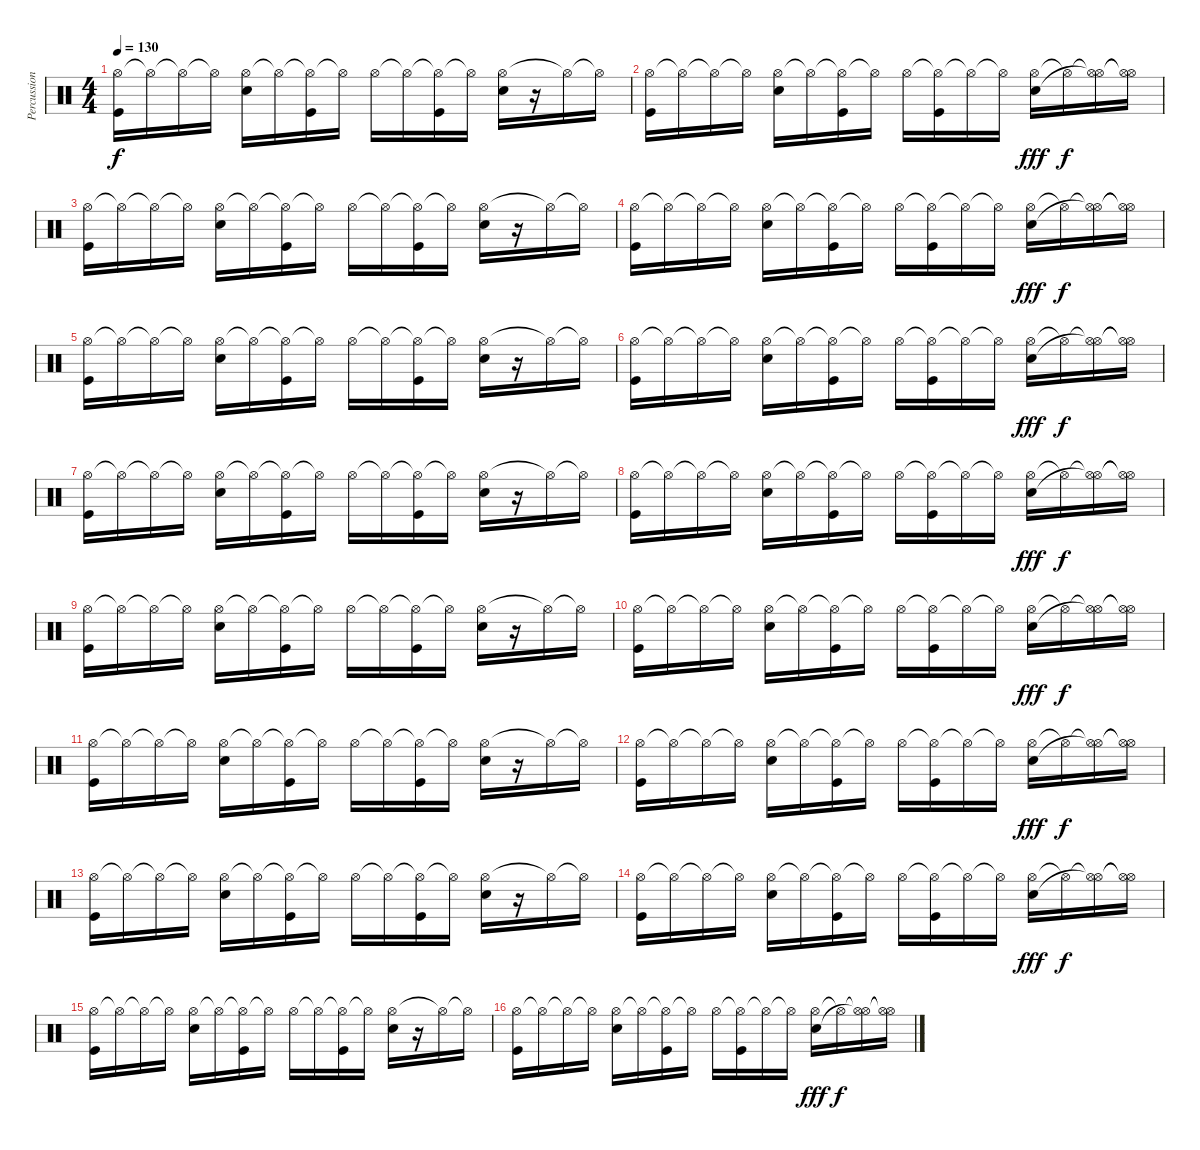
\track ("Percussion" "Percussion") {instrument percussion}
\staff {score}
\articulation defaults
\ts (4 4)
\tempo 130
\clef neutral
\ks c
("Hi-Hat (open)" "Kick (hit)").16{dy f} "Hi-Hat (open)"{t}.16 "Hi-Hat (open)"{t}.16 "Hi-Hat (open)"{t}.16 ("Hi-Hat (open)" "Snare (hit) 2").16 "Hi-Hat (open)"{t}.16 ("Hi-Hat (open)"{t} "Kick (hit)").16 "Hi-Hat (open)"{t}.16 "Hi-Hat (open)".16 "Hi-Hat (open)"{t}.16 ("Hi-Hat (open)"{t} "Kick (hit)").16 "Hi-Hat (open)"{t}.16 ("Hi-Hat (open)" "Snare (hit) 2").16 r.16 "Hi-Hat (open)"{t}.16 "Hi-Hat (open)"{t}.16 |
("Hi-Hat (open)" "Kick (hit)").16 "Hi-Hat (open)"{t}.16 "Hi-Hat (open)"{t}.16 "Hi-Hat (open)"{t}.16 ("Hi-Hat (open)" "Snare (hit) 2").16 "Hi-Hat (open)"{t}.16 ("Hi-Hat (open)"{t} "Kick (hit)").16 "Hi-Hat (open)"{t}.16 "Hi-Hat (open)".16 ("Hi-Hat (open)"{t} "Kick (hit)").16 "Hi-Hat (open)"{t}.16 "Hi-Hat (open)"{t}.16 ("Hi-Hat (open)" "Snare (hit) 2").16{dy fff} "Hi-Hat (open)"{t}.16{dy f} ("Hi-Hat (open)"{t} "Hi-Hat (open)"{t}).16 ("Hi-Hat (open)"{t} "Hi-Hat (open)"{t}).16 |
("Hi-Hat (open)" "Kick (hit)").16 "Hi-Hat (open)"{t}.16 "Hi-Hat (open)"{t}.16 "Hi-Hat (open)"{t}.16 ("Hi-Hat (open)" "Snare (hit) 2").16 "Hi-Hat (open)"{t}.16 ("Hi-Hat (open)"{t} "Kick (hit)").16 "Hi-Hat (open)"{t}.16 "Hi-Hat (open)".16 "Hi-Hat (open)"{t}.16 ("Hi-Hat (open)"{t} "Kick (hit)").16 "Hi-Hat (open)"{t}.16 ("Hi-Hat (open)" "Snare (hit) 2").16 r.16 "Hi-Hat (open)"{t}.16 "Hi-Hat (open)"{t}.16 |
("Hi-Hat (open)" "Kick (hit)").16 "Hi-Hat (open)"{t}.16 "Hi-Hat (open)"{t}.16 "Hi-Hat (open)"{t}.16 ("Hi-Hat (open)" "Snare (hit) 2").16 "Hi-Hat (open)"{t}.16 ("Hi-Hat (open)"{t} "Kick (hit)").16 "Hi-Hat (open)"{t}.16 "Hi-Hat (open)".16 ("Hi-Hat (open)"{t} "Kick (hit)").16 "Hi-Hat (open)"{t}.16 "Hi-Hat (open)"{t}.16 ("Hi-Hat (open)" "Snare (hit) 2").16{dy fff} "Hi-Hat (open)"{t}.16{dy f} ("Hi-Hat (open)"{t} "Hi-Hat (open)"{t}).16 ("Hi-Hat (open)"{t} "Hi-Hat (open)"{t}).16 |
("Hi-Hat (open)" "Kick (hit)").16 "Hi-Hat (open)"{t}.16 "Hi-Hat (open)"{t}.16 "Hi-Hat (open)"{t}.16 ("Hi-Hat (open)" "Snare (hit) 2").16 "Hi-Hat (open)"{t}.16 ("Hi-Hat (open)"{t} "Kick (hit)").16 "Hi-Hat (open)"{t}.16 "Hi-Hat (open)".16 "Hi-Hat (open)"{t}.16 ("Hi-Hat (open)"{t} "Kick (hit)").16 "Hi-Hat (open)"{t}.16 ("Hi-Hat (open)" "Snare (hit) 2").16 r.16 "Hi-Hat (open)"{t}.16 "Hi-Hat (open)"{t}.16 |
("Hi-Hat (open)" "Kick (hit)").16 "Hi-Hat (open)"{t}.16 "Hi-Hat (open)"{t}.16 "Hi-Hat (open)"{t}.16 ("Hi-Hat (open)" "Snare (hit) 2").16 "Hi-Hat (open)"{t}.16 ("Hi-Hat (open)"{t} "Kick (hit)").16 "Hi-Hat (open)"{t}.16 "Hi-Hat (open)".16 ("Hi-Hat (open)"{t} "Kick (hit)").16 "Hi-Hat (open)"{t}.16 "Hi-Hat (open)"{t}.16 ("Hi-Hat (open)" "Snare (hit) 2").16{dy fff} "Hi-Hat (open)"{t}.16{dy f} ("Hi-Hat (open)"{t} "Hi-Hat (open)"{t}).16 ("Hi-Hat (open)"{t} "Hi-Hat (open)"{t}).16 |
("Hi-Hat (open)" "Kick (hit)").16 "Hi-Hat (open)"{t}.16 "Hi-Hat (open)"{t}.16 "Hi-Hat (open)"{t}.16 ("Hi-Hat (open)" "Snare (hit) 2").16 "Hi-Hat (open)"{t}.16 ("Hi-Hat (open)"{t} "Kick (hit)").16 "Hi-Hat (open)"{t}.16 "Hi-Hat (open)".16 "Hi-Hat (open)"{t}.16 ("Hi-Hat (open)"{t} "Kick (hit)").16 "Hi-Hat (open)"{t}.16 ("Hi-Hat (open)" "Snare (hit) 2").16 r.16 "Hi-Hat (open)"{t}.16 "Hi-Hat (open)"{t}.16 |
("Hi-Hat (open)" "Kick (hit)").16 "Hi-Hat (open)"{t}.16 "Hi-Hat (open)"{t}.16 "Hi-Hat (open)"{t}.16 ("Hi-Hat (open)" "Snare (hit) 2").16 "Hi-Hat (open)"{t}.16 ("Hi-Hat (open)"{t} "Kick (hit)").16 "Hi-Hat (open)"{t}.16 "Hi-Hat (open)".16 ("Hi-Hat (open)"{t} "Kick (hit)").16 "Hi-Hat (open)"{t}.16 "Hi-Hat (open)"{t}.16 ("Hi-Hat (open)" "Snare (hit) 2").16{dy fff} "Hi-Hat (open)"{t}.16{dy f} ("Hi-Hat (open)"{t} "Hi-Hat (open)"{t}).16 ("Hi-Hat (open)"{t} "Hi-Hat (open)"{t}).16 |
("Hi-Hat (open)" "Kick (hit)").16 "Hi-Hat (open)"{t}.16 "Hi-Hat (open)"{t}.16 "Hi-Hat (open)"{t}.16 ("Hi-Hat (open)" "Snare (hit) 2").16 "Hi-Hat (open)"{t}.16 ("Hi-Hat (open)"{t} "Kick (hit)").16 "Hi-Hat (open)"{t}.16 "Hi-Hat (open)".16 "Hi-Hat (open)"{t}.16 ("Hi-Hat (open)"{t} "Kick (hit)").16 "Hi-Hat (open)"{t}.16 ("Hi-Hat (open)" "Snare (hit) 2").16 r.16 "Hi-Hat (open)"{t}.16 "Hi-Hat (open)"{t}.16 |
("Hi-Hat (open)" "Kick (hit)").16 "Hi-Hat (open)"{t}.16 "Hi-Hat (open)"{t}.16 "Hi-Hat (open)"{t}.16 ("Hi-Hat (open)" "Snare (hit) 2").16 "Hi-Hat (open)"{t}.16 ("Hi-Hat (open)"{t} "Kick (hit)").16 "Hi-Hat (open)"{t}.16 "Hi-Hat (open)".16 ("Hi-Hat (open)"{t} "Kick (hit)").16 "Hi-Hat (open)"{t}.16 "Hi-Hat (open)"{t}.16 ("Hi-Hat (open)" "Snare (hit) 2").16{dy fff} "Hi-Hat (open)"{t}.16{dy f} ("Hi-Hat (open)"{t} "Hi-Hat (open)"{t}).16 ("Hi-Hat (open)"{t} "Hi-Hat (open)"{t}).16 |
("Hi-Hat (open)" "Kick (hit)").16 "Hi-Hat (open)"{t}.16 "Hi-Hat (open)"{t}.16 "Hi-Hat (open)"{t}.16 ("Hi-Hat (open)" "Snare (hit) 2").16 "Hi-Hat (open)"{t}.16 ("Hi-Hat (open)"{t} "Kick (hit)").16 "Hi-Hat (open)"{t}.16 "Hi-Hat (open)".16 "Hi-Hat (open)"{t}.16 ("Hi-Hat (open)"{t} "Kick (hit)").16 "Hi-Hat (open)"{t}.16 ("Hi-Hat (open)" "Snare (hit) 2").16 r.16 "Hi-Hat (open)"{t}.16 "Hi-Hat (open)"{t}.16 |
("Hi-Hat (open)" "Kick (hit)").16 "Hi-Hat (open)"{t}.16 "Hi-Hat (open)"{t}.16 "Hi-Hat (open)"{t}.16 ("Hi-Hat (open)" "Snare (hit) 2").16 "Hi-Hat (open)"{t}.16 ("Hi-Hat (open)"{t} "Kick (hit)").16 "Hi-Hat (open)"{t}.16 "Hi-Hat (open)".16 ("Hi-Hat (open)"{t} "Kick (hit)").16 "Hi-Hat (open)"{t}.16 "Hi-Hat (open)"{t}.16 ("Hi-Hat (open)" "Snare (hit) 2").16{dy fff} "Hi-Hat (open)"{t}.16{dy f} ("Hi-Hat (open)"{t} "Hi-Hat (open)"{t}).16 ("Hi-Hat (open)"{t} "Hi-Hat (open)"{t}).16 |
("Hi-Hat (open)" "Kick (hit)").16 "Hi-Hat (open)"{t}.16 "Hi-Hat (open)"{t}.16 "Hi-Hat (open)"{t}.16 ("Hi-Hat (open)" "Snare (hit) 2").16 "Hi-Hat (open)"{t}.16 ("Hi-Hat (open)"{t} "Kick (hit)").16 "Hi-Hat (open)"{t}.16 "Hi-Hat (open)".16 "Hi-Hat (open)"{t}.16 ("Hi-Hat (open)"{t} "Kick (hit)").16 "Hi-Hat (open)"{t}.16 ("Hi-Hat (open)" "Snare (hit) 2").16 r.16 "Hi-Hat (open)"{t}.16 "Hi-Hat (open)"{t}.16 |
("Hi-Hat (open)" "Kick (hit)").16 "Hi-Hat (open)"{t}.16 "Hi-Hat (open)"{t}.16 "Hi-Hat (open)"{t}.16 ("Hi-Hat (open)" "Snare (hit) 2").16 "Hi-Hat (open)"{t}.16 ("Hi-Hat (open)"{t} "Kick (hit)").16 "Hi-Hat (open)"{t}.16 "Hi-Hat (open)".16 ("Hi-Hat (open)"{t} "Kick (hit)").16 "Hi-Hat (open)"{t}.16 "Hi-Hat (open)"{t}.16 ("Hi-Hat (open)" "Snare (hit) 2").16{dy fff} "Hi-Hat (open)"{t}.16{dy f} ("Hi-Hat (open)"{t} "Hi-Hat (open)"{t}).16 ("Hi-Hat (open)"{t} "Hi-Hat (open)"{t}).16 |
("Hi-Hat (open)" "Kick (hit)").16 "Hi-Hat (open)"{t}.16 "Hi-Hat (open)"{t}.16 "Hi-Hat (open)"{t}.16 ("Hi-Hat (open)" "Snare (hit) 2").16 "Hi-Hat (open)"{t}.16 ("Hi-Hat (open)"{t} "Kick (hit)").16 "Hi-Hat (open)"{t}.16 "Hi-Hat (open)".16 "Hi-Hat (open)"{t}.16 ("Hi-Hat (open)"{t} "Kick (hit)").16 "Hi-Hat (open)"{t}.16 ("Hi-Hat (open)" "Snare (hit) 2").16 r.16 "Hi-Hat (open)"{t}.16 "Hi-Hat (open)"{t}.16 |
("Hi-Hat (open)" "Kick (hit)").16 "Hi-Hat (open)"{t}.16 "Hi-Hat (open)"{t}.16 "Hi-Hat (open)"{t}.16 ("Hi-Hat (open)" "Snare (hit) 2").16 "Hi-Hat (open)"{t}.16 ("Hi-Hat (open)"{t} "Kick (hit)").16 "Hi-Hat (open)"{t}.16 "Hi-Hat (open)".16 ("Hi-Hat (open)"{t} "Kick (hit)").16 "Hi-Hat (open)"{t}.16 "Hi-Hat (open)"{t}.16 ("Hi-Hat (open)" "Snare (hit) 2").16{dy fff} "Hi-Hat (open)"{t}.16{dy f} ("Hi-Hat (open)"{t} "Hi-Hat (open)"{t}).16 ("Hi-Hat (open)"{t} "Hi-Hat (open)"{t}).16
